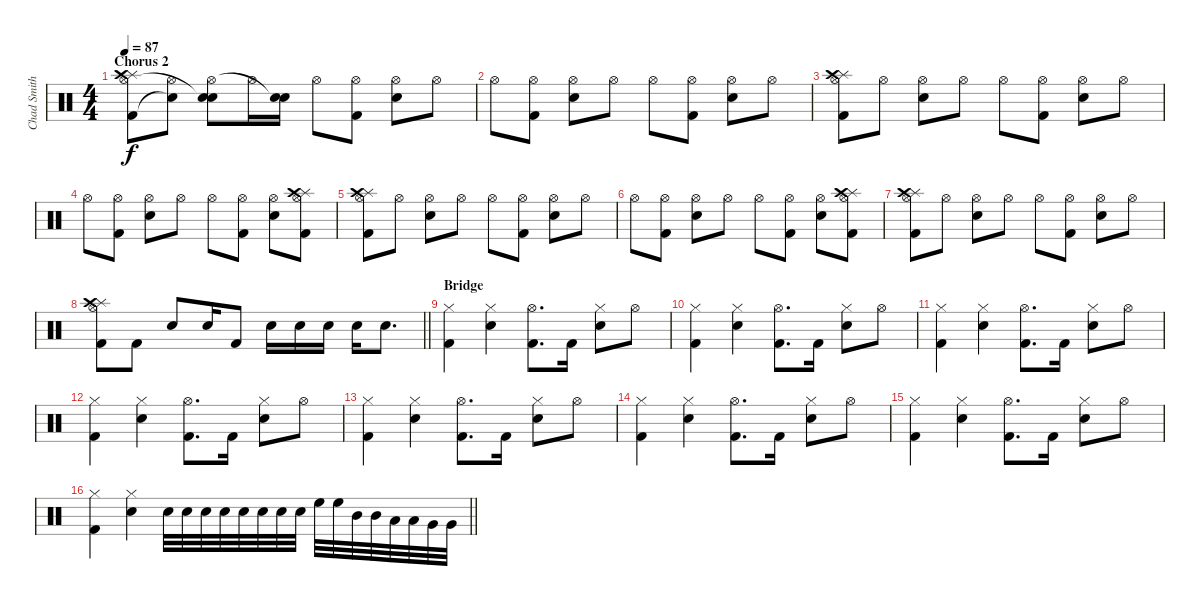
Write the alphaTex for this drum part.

\track ("Chad Smith" "Chad Smith") {instrument percussion}
\staff {score}
\articulation defaults
\ts (4 4)
\section ("" "Chorus 2")
\tempo 87
\clef neutral
\ks c
("Splash (hit)" "Kick (hit) 2" "Hi-Hat (open)" "Crash high (hit)").8{dy f} ("Hi-Hat (open)" "Snare (hit)"{t}).8 ("Electric Snare (hit)" "Hi-Hat (open)" "Snare (hit)"{t}).8 "Hi-Hat (open)".16 ("Electric Snare (hit)" "Snare (hit)"{t}).16 "Hi-Hat (open)".8 ("Kick (hit) 2" "Hi-Hat (open)").8 ("Electric Snare (hit)" "Hi-Hat (open)").8 "Hi-Hat (open)".8 |
"Hi-Hat (open)".8 ("Kick (hit) 2" "Hi-Hat (open)").8 ("Electric Snare (hit)" "Hi-Hat (open)").8 "Hi-Hat (open)".8 "Hi-Hat (open)".8 ("Kick (hit) 2" "Hi-Hat (open)").8 ("Electric Snare (hit)" "Hi-Hat (open)").8 "Hi-Hat (open)".8 |
("Splash (hit)" "Kick (hit) 2" "Hi-Hat (open)" "Crash high (hit)").8 "Hi-Hat (open)".8 ("Electric Snare (hit)" "Hi-Hat (open)").8 "Hi-Hat (open)".8 "Hi-Hat (open)".8 ("Kick (hit) 2" "Hi-Hat (open)").8 ("Electric Snare (hit)" "Hi-Hat (open)").8 "Hi-Hat (open)".8 |
"Hi-Hat (open)".8 ("Kick (hit) 2" "Hi-Hat (open)").8 ("Electric Snare (hit)" "Hi-Hat (open)").8 "Hi-Hat (open)".8 "Hi-Hat (open)".8 ("Kick (hit) 2" "Hi-Hat (open)").8 ("Electric Snare (hit)" "Hi-Hat (open)").8 ("Splash (hit)" "Kick (hit) 2" "Hi-Hat (open)" "Crash high (hit)").8 |
("Splash (hit)" "Kick (hit) 2" "Hi-Hat (open)" "Crash high (hit)").8 "Hi-Hat (open)".8 ("Electric Snare (hit)" "Hi-Hat (open)").8 "Hi-Hat (open)".8 "Hi-Hat (open)".8 ("Kick (hit) 2" "Hi-Hat (open)").8 ("Electric Snare (hit)" "Hi-Hat (open)").8 "Hi-Hat (open)".8 |
"Hi-Hat (open)".8 ("Kick (hit) 2" "Hi-Hat (open)").8 ("Electric Snare (hit)" "Hi-Hat (open)").8 "Hi-Hat (open)".8 "Hi-Hat (open)".8 ("Kick (hit) 2" "Hi-Hat (open)").8 ("Electric Snare (hit)" "Hi-Hat (open)").8 ("Splash (hit)" "Kick (hit) 2" "Hi-Hat (open)" "Crash high (hit)").8 |
("Splash (hit)" "Kick (hit) 2" "Hi-Hat (open)" "Crash high (hit)").8 "Hi-Hat (open)".8 ("Electric Snare (hit)" "Hi-Hat (open)").8 "Hi-Hat (open)".8 "Hi-Hat (open)".8 ("Kick (hit) 2" "Hi-Hat (open)").8 ("Electric Snare (hit)" "Hi-Hat (open)").8 "Hi-Hat (open)".8 |
\barLineRight lightlight
("Splash (hit)" "Kick (hit) 2" "Hi-Hat (open)" "Crash high (hit)").8 "Kick (hit) 2".8 "Electric Snare (hit)".8 "Electric Snare (hit)".16 "Kick (hit) 2".8 "Electric Snare (hit)".16 "Electric Snare (hit)".16 "Electric Snare (hit)".16 "Electric Snare (hit)".16 "Electric Snare (hit)".8{d} |
\section ("" "Bridge")
("Kick (hit) 2" "Hi-Hat (closed)").4 ("Electric Snare (hit)" "Hi-Hat (closed)").4 ("Kick (hit) 2" "Hi-Hat (open)").8{d} "Kick (hit) 2".16 ("Electric Snare (hit)" "Hi-Hat (closed)").8 "Hi-Hat (open)".8 |
("Kick (hit) 2" "Hi-Hat (closed)").4 ("Electric Snare (hit)" "Hi-Hat (closed)").4 ("Kick (hit) 2" "Hi-Hat (open)").8{d} "Kick (hit) 2".16 ("Electric Snare (hit)" "Hi-Hat (closed)").8 "Hi-Hat (open)".8 |
("Kick (hit) 2" "Hi-Hat (closed)").4 ("Electric Snare (hit)" "Hi-Hat (closed)").4 ("Kick (hit) 2" "Hi-Hat (open)").8{d} "Kick (hit) 2".16 ("Electric Snare (hit)" "Hi-Hat (closed)").8 "Hi-Hat (open)".8 |
("Kick (hit) 2" "Hi-Hat (closed)").4 ("Electric Snare (hit)" "Hi-Hat (closed)").4 ("Kick (hit) 2" "Hi-Hat (open)").8{d} "Kick (hit) 2".16 ("Electric Snare (hit)" "Hi-Hat (closed)").8 "Hi-Hat (open)".8 |
("Kick (hit) 2" "Hi-Hat (closed)").4 ("Electric Snare (hit)" "Hi-Hat (closed)").4 ("Kick (hit) 2" "Hi-Hat (open)").8{d} "Kick (hit) 2".16 ("Electric Snare (hit)" "Hi-Hat (closed)").8 "Hi-Hat (open)".8 |
("Kick (hit) 2" "Hi-Hat (closed)").4 ("Electric Snare (hit)" "Hi-Hat (closed)").4 ("Kick (hit) 2" "Hi-Hat (open)").8{d} "Kick (hit) 2".16 ("Electric Snare (hit)" "Hi-Hat (closed)").8 "Hi-Hat (open)".8 |
("Kick (hit) 2" "Hi-Hat (closed)").4 ("Electric Snare (hit)" "Hi-Hat (closed)").4 ("Kick (hit) 2" "Hi-Hat (open)").8{d} "Kick (hit) 2".16 ("Electric Snare (hit)" "Hi-Hat (closed)").8 "Hi-Hat (open)".8 |
\barLineRight lightlight
("Kick (hit) 2" "Hi-Hat (closed)").4 ("Electric Snare (hit)" "Hi-Hat (closed)").4{volume 7} "Electric Snare (hit)".32{volume 14} "Electric Snare (hit)".32 "Electric Snare (hit)".32 "Electric Snare (hit)".32 "Electric Snare (hit)".32 "Electric Snare (hit)".32 "Electric Snare (hit)".32 "Electric Snare (hit)".32 "High Floor Tom (hit)".32 "High Floor Tom (hit)".32 "Mid Tom (hit)".32 "Mid Tom (hit)".32 "Low Tom (hit)".32 "Low Tom (hit)".32 "Very Low Tom (hit)".32 "Very Low Tom (hit)".32
